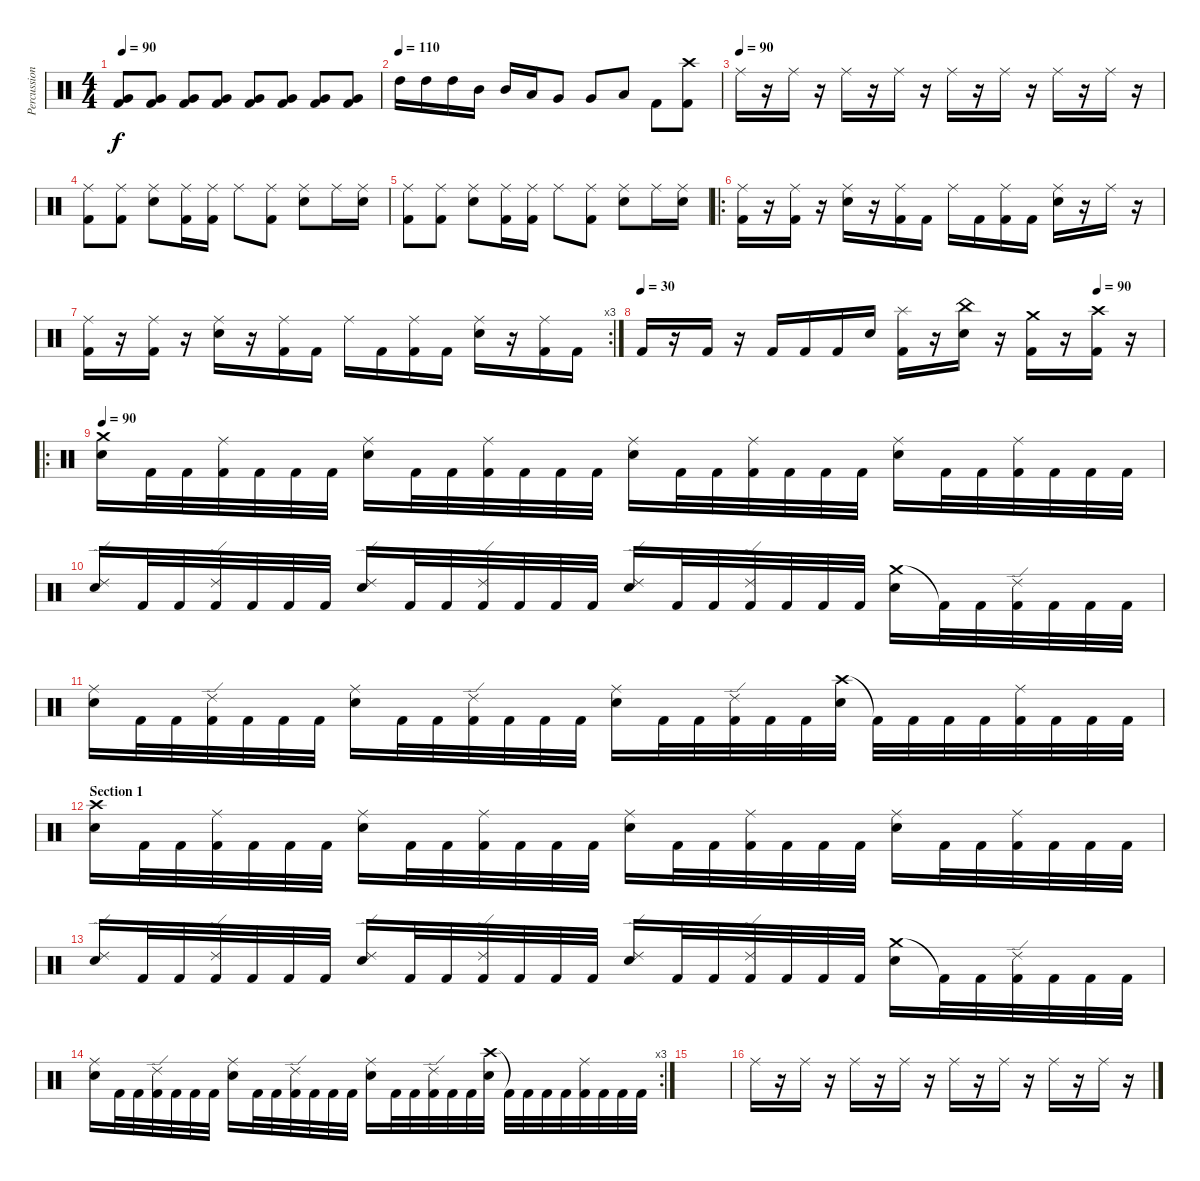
\track ("Percussion" "Percussion") {instrument percussion}
\staff {score}
\articulation defaults
\ts (4 4)
\tempo 90
\clef neutral
\ks c
("Kick (hit) 2" "Very Low Tom (hit)").8{dy f volume 13} ("Kick (hit) 2" "Very Low Tom (hit)").8 ("Kick (hit) 2" "Very Low Tom (hit)").8 ("Kick (hit) 2" "Very Low Tom (hit)").8 ("Kick (hit) 2" "Very Low Tom (hit)").8 ("Kick (hit) 2" "Very Low Tom (hit)").8 ("Kick (hit) 2" "Very Low Tom (hit)").8 ("Kick (hit) 2" "Very Low Tom (hit)").8 |
\tempo (110)
"High Tom (hit)".16 "High Tom (hit)".16 "High Tom (hit)".16 "Mid Tom (hit)".16 "Mid Tom (hit)".16 "Low Tom (hit)".16 "Very Low Tom (hit)".8 "Very Low Tom (hit)".8 "Low Floor Tom (hit)".8 "Kick (hit) 2".8 ("Crash high (hit)" "Kick (hit) 2").8 |
\tempo (90)
"Ride (middle)".16 r.16 "Ride (middle)".16 r.16 "Ride (middle)".16 r.16 "Ride (middle)".16 r.16 "Ride (middle)".16 r.16 "Ride (middle)".16 r.16 "Ride (middle)".16 r.16 "Ride (middle)".16 r.16 |
("Ride (middle)" "Kick (hit) 2").8 ("Ride (middle)" "Kick (hit) 2").8 ("Ride (middle)" "Electric Snare (hit)").8 ("Ride (middle)" "Kick (hit) 2").16 ("Ride (middle)" "Kick (hit) 2").16 "Ride (middle)".8 ("Ride (middle)" "Kick (hit) 2").8 ("Ride (middle)" "Electric Snare (hit)").8 "Ride (middle)".16 ("Ride (middle)" "Electric Snare (hit)").16 |
("Ride (middle)" "Kick (hit) 2").8 ("Ride (middle)" "Kick (hit) 2").8 ("Ride (middle)" "Electric Snare (hit)").8 ("Ride (middle)" "Kick (hit) 2").16 ("Ride (middle)" "Kick (hit) 2").16 "Ride (middle)".8 ("Ride (middle)" "Kick (hit) 2").8 ("Ride (middle)" "Electric Snare (hit)").8 "Ride (middle)".16 ("Ride (middle)" "Electric Snare (hit)").16 |
\ro
("Ride (middle)" "Kick (hit) 2").16 r.16 ("Ride (middle)" "Kick (hit) 2").16 r.16 ("Ride (middle)" "Electric Snare (hit)").16 r.16 ("Ride (middle)" "Kick (hit) 2").16 "Kick (hit) 2".16 "Ride (middle)".16 "Kick (hit) 2".16 ("Ride (middle)" "Kick (hit) 2").16 "Kick (hit) 2".16 ("Ride (middle)" "Electric Snare (hit)").16 r.16 "Ride (middle)".16 r.16 |
\rc 3
("Ride (middle)" "Kick (hit) 2").16 r.16 ("Ride (middle)" "Kick (hit) 2").16 r.16 ("Ride (middle)" "Electric Snare (hit)").16 r.16 ("Ride (middle)" "Kick (hit) 2").16 "Kick (hit) 2".16 "Ride (middle)".16 "Kick (hit) 2".16 ("Ride (middle)" "Kick (hit) 2").16 "Kick (hit) 2".16 ("Ride (middle)" "Electric Snare (hit)").16 r.16 ("Ride (middle)" "Kick (hit) 2").16 "Kick (hit) 2".16 |
\tempo 30
\tempo (90 0.875)
"Kick (hit) 2".16 r.16 "Kick (hit) 2".16 r.16 "Kick (hit) 2".16 "Kick (hit) 2".16 "Kick (hit) 2".16 "Electric Snare (hit)".16 ("Splash (hit)" "Kick (hit) 2").16 r.16 ("China (hit)" "Electric Snare (hit)").16 r.16 ("Crash medium (hit)" "Kick (hit) 2").16 r.16 ("Crash high (hit)" "Kick (hit) 2").16 r.16 |
\ro
\tempo 90
("Crash medium (hit)" "Snare (hit) 2").16 "Kick (hit) 2".32 "Kick (hit) 2".32 ("Ride (middle)" "Kick (hit) 2").32 "Kick (hit) 2".32 "Kick (hit) 2".32 "Kick (hit) 2".32 ("Ride (middle)" "Snare (hit) 2").16 "Kick (hit) 2".32 "Kick (hit) 2".32 ("Ride (middle)" "Kick (hit) 2").32 "Kick (hit) 2".32 "Kick (hit) 2".32 "Kick (hit) 2".32 ("Ride (middle)" "Snare (hit) 2").16 "Kick (hit) 2".32 "Kick (hit) 2".32 ("Ride (middle)" "Kick (hit) 2").32 "Kick (hit) 2".32 "Kick (hit) 2".32 "Kick (hit) 2".32 ("Ride (middle)" "Snare (hit) 2").16 "Kick (hit) 2".32 "Kick (hit) 2".32 ("Ride (middle)" "Kick (hit) 2").32 "Kick (hit) 2".32 "Kick (hit) 2".32 "Kick (hit) 2".32 |
("Ride (edge) 2" "Snare (hit) 2").16 "Kick (hit) 2".32 "Kick (hit) 2".32 ("Ride (edge) 2" "Kick (hit) 2").32 "Kick (hit) 2".32 "Kick (hit) 2".32 "Kick (hit) 2".32 ("Ride (edge) 2" "Snare (hit) 2").16 "Kick (hit) 2".32 "Kick (hit) 2".32 ("Ride (edge) 2" "Kick (hit) 2").32 "Kick (hit) 2".32 "Kick (hit) 2".32 "Kick (hit) 2".32 ("Ride (edge) 2" "Snare (hit) 2").16 "Kick (hit) 2".32 "Kick (hit) 2".32 ("Ride (edge) 2" "Kick (hit) 2").32 "Kick (hit) 2".32 "Kick (hit) 2".32 "Kick (hit) 2".32 ("Crash medium (hit)" "Snare (hit) 2").16 "Kick (hit) 2"{t}.32 "Kick (hit) 2".32 ("Ride (edge) 2" "Kick (hit) 2").32 "Kick (hit) 2".32 "Kick (hit) 2".32 "Kick (hit) 2".32 |
("Ride (middle)" "Snare (hit) 2").16 "Kick (hit) 2".32 "Kick (hit) 2".32 ("Ride (edge) 2" "Kick (hit) 2").32 "Kick (hit) 2".32 "Kick (hit) 2".32 "Kick (hit) 2".32 ("Ride (middle)" "Snare (hit) 2").16 "Kick (hit) 2".32 "Kick (hit) 2".32 ("Ride (edge) 2" "Kick (hit) 2").32 "Kick (hit) 2".32 "Kick (hit) 2".32 "Kick (hit) 2".32 ("Ride (middle)" "Snare (hit) 2").16 "Kick (hit) 2".32 "Kick (hit) 2".32 ("Ride (edge) 2" "Kick (hit) 2").32 "Kick (hit) 2".32 "Kick (hit) 2".32 ("Crash high (hit)" "Snare (hit) 2").32 "Kick (hit) 2"{t}.32 "Kick (hit) 2".32 "Kick (hit) 2".32 "Kick (hit) 2".32 ("Ride (middle)" "Kick (hit) 2").32 "Kick (hit) 2".32 "Kick (hit) 2".32 "Kick (hit) 2".32 |
\section ("" "Section 1")
("Crash high (hit)" "Snare (hit) 2").16 "Kick (hit) 2".32 "Kick (hit) 2".32 ("Ride (middle)" "Kick (hit) 2").32 "Kick (hit) 2".32 "Kick (hit) 2".32 "Kick (hit) 2".32 ("Ride (middle)" "Snare (hit) 2").16 "Kick (hit) 2".32 "Kick (hit) 2".32 ("Ride (middle)" "Kick (hit) 2").32 "Kick (hit) 2".32 "Kick (hit) 2".32 "Kick (hit) 2".32 ("Ride (middle)" "Snare (hit) 2").16 "Kick (hit) 2".32 "Kick (hit) 2".32 ("Ride (middle)" "Kick (hit) 2").32 "Kick (hit) 2".32 "Kick (hit) 2".32 "Kick (hit) 2".32 ("Ride (middle)" "Snare (hit) 2").16 "Kick (hit) 2".32 "Kick (hit) 2".32 ("Ride (middle)" "Kick (hit) 2").32 "Kick (hit) 2".32 "Kick (hit) 2".32 "Kick (hit) 2".32 |
("Ride (edge) 2" "Snare (hit) 2").16 "Kick (hit) 2".32 "Kick (hit) 2".32 ("Ride (edge) 2" "Kick (hit) 2").32 "Kick (hit) 2".32 "Kick (hit) 2".32 "Kick (hit) 2".32 ("Ride (edge) 2" "Snare (hit) 2").16 "Kick (hit) 2".32 "Kick (hit) 2".32 ("Ride (edge) 2" "Kick (hit) 2").32 "Kick (hit) 2".32 "Kick (hit) 2".32 "Kick (hit) 2".32 ("Ride (edge) 2" "Snare (hit) 2").16 "Kick (hit) 2".32 "Kick (hit) 2".32 ("Ride (edge) 2" "Kick (hit) 2").32 "Kick (hit) 2".32 "Kick (hit) 2".32 "Kick (hit) 2".32 ("Crash medium (hit)" "Snare (hit) 2").16 "Kick (hit) 2"{t}.32 "Kick (hit) 2".32 ("Ride (edge) 2" "Kick (hit) 2").32 "Kick (hit) 2".32 "Kick (hit) 2".32 "Kick (hit) 2".32 |
\rc 3
("Ride (middle)" "Snare (hit) 2").16 "Kick (hit) 2".32 "Kick (hit) 2".32 ("Ride (edge) 2" "Kick (hit) 2").32 "Kick (hit) 2".32 "Kick (hit) 2".32 "Kick (hit) 2".32 ("Ride (middle)" "Snare (hit) 2").16 "Kick (hit) 2".32 "Kick (hit) 2".32 ("Ride (edge) 2" "Kick (hit) 2").32 "Kick (hit) 2".32 "Kick (hit) 2".32 "Kick (hit) 2".32 ("Ride (middle)" "Snare (hit) 2").16 "Kick (hit) 2".32 "Kick (hit) 2".32 ("Ride (edge) 2" "Kick (hit) 2").32 "Kick (hit) 2".32 "Kick (hit) 2".32 ("Crash high (hit)" "Snare (hit) 2").32 "Kick (hit) 2"{t}.32 "Kick (hit) 2".32 "Kick (hit) 2".32 "Kick (hit) 2".32 ("Ride (middle)" "Kick (hit) 2").32 "Kick (hit) 2".32 "Kick (hit) 2".32 "Kick (hit) 2".32 |
|
"Ride (middle)".16 r.16 "Ride (middle)".16 r.16 "Ride (middle)".16 r.16 "Ride (middle)".16 r.16 "Ride (middle)".16 r.16 "Ride (middle)".16 r.16 "Ride (middle)".16 r.16 "Ride (middle)".16 r.16
